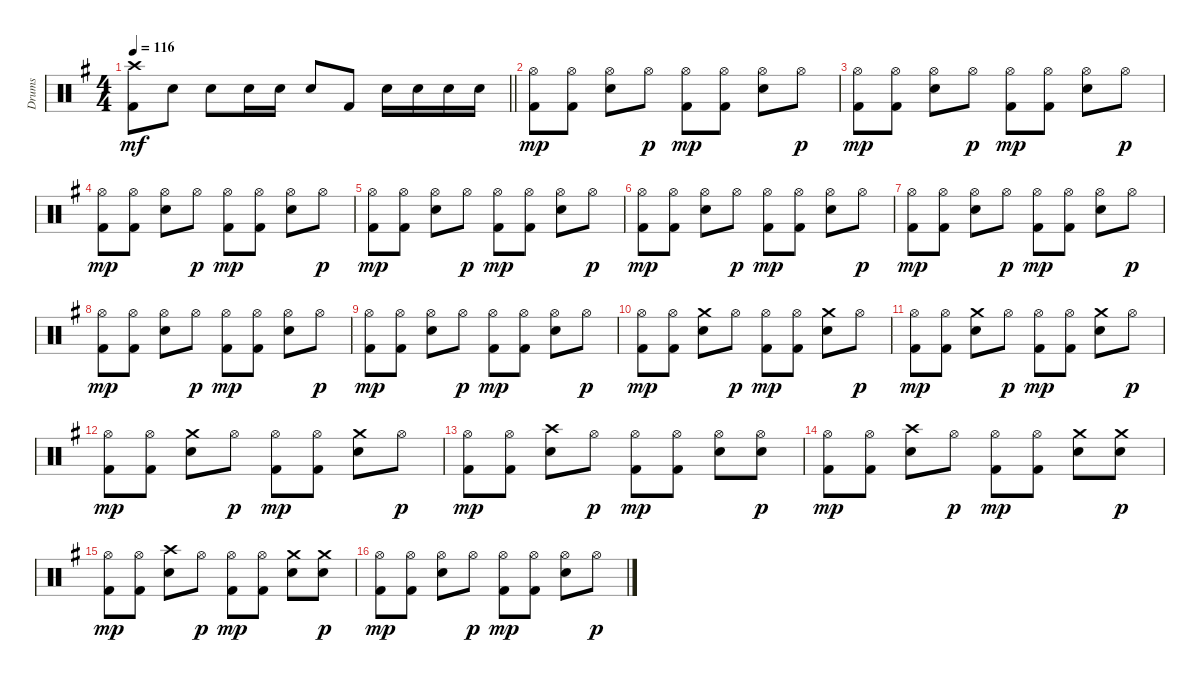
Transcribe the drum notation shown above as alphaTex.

\track ("Drums" "Drums") {instrument percussion}
\staff {score}
\articulation defaults
\ts (4 4)
\tempo 116
\clef neutral
\barLineRight lightlight
\ks g
("Crash high (hit)" "Kick (hit) 2").8{dy mf} "Electric Snare (hit)".8 "Electric Snare (hit)".8 "Electric Snare (hit)".16 "Electric Snare (hit)".16 "Electric Snare (hit)".8 "Kick (hit) 2".8 "Electric Snare (hit)".16 "Electric Snare (hit)".16 "Electric Snare (hit)".16 "Electric Snare (hit)".16 |
("Hi-Hat (open)" "Kick (hit) 2").8{dy mp} ("Hi-Hat (open)" "Kick (hit) 2").8 ("Hi-Hat (open)" "Electric Snare (hit)").8 "Hi-Hat (open)".8{dy p} ("Hi-Hat (open)" "Kick (hit) 2").8{dy mp} ("Hi-Hat (open)" "Kick (hit) 2").8 ("Hi-Hat (open)" "Electric Snare (hit)").8 "Hi-Hat (open)".8{dy p} |
("Hi-Hat (open)" "Kick (hit) 2").8{dy mp} ("Hi-Hat (open)" "Kick (hit) 2").8 ("Hi-Hat (open)" "Electric Snare (hit)").8 "Hi-Hat (open)".8{dy p} ("Hi-Hat (open)" "Kick (hit) 2").8{dy mp} ("Hi-Hat (open)" "Kick (hit) 2").8 ("Hi-Hat (open)" "Electric Snare (hit)").8 "Hi-Hat (open)".8{dy p} |
("Hi-Hat (open)" "Kick (hit) 2").8{dy mp} ("Hi-Hat (open)" "Kick (hit) 2").8 ("Hi-Hat (open)" "Electric Snare (hit)").8 "Hi-Hat (open)".8{dy p} ("Hi-Hat (open)" "Kick (hit) 2").8{dy mp} ("Hi-Hat (open)" "Kick (hit) 2").8 ("Hi-Hat (open)" "Electric Snare (hit)").8 "Hi-Hat (open)".8{dy p} |
("Hi-Hat (open)" "Kick (hit) 2").8{dy mp} ("Hi-Hat (open)" "Kick (hit) 2").8 ("Hi-Hat (open)" "Electric Snare (hit)").8 "Hi-Hat (open)".8{dy p} ("Hi-Hat (open)" "Kick (hit) 2").8{dy mp} ("Hi-Hat (open)" "Kick (hit) 2").8 ("Hi-Hat (open)" "Electric Snare (hit)").8 "Hi-Hat (open)".8{dy p} |
("Hi-Hat (open)" "Kick (hit) 2").8{dy mp} ("Hi-Hat (open)" "Kick (hit) 2").8 ("Hi-Hat (open)" "Electric Snare (hit)").8 "Hi-Hat (open)".8{dy p} ("Hi-Hat (open)" "Kick (hit) 2").8{dy mp} ("Hi-Hat (open)" "Kick (hit) 2").8 ("Hi-Hat (open)" "Electric Snare (hit)").8 "Hi-Hat (open)".8{dy p} |
("Hi-Hat (open)" "Kick (hit) 2").8{dy mp} ("Hi-Hat (open)" "Kick (hit) 2").8 ("Hi-Hat (open)" "Electric Snare (hit)").8 "Hi-Hat (open)".8{dy p} ("Hi-Hat (open)" "Kick (hit) 2").8{dy mp} ("Hi-Hat (open)" "Kick (hit) 2").8 ("Hi-Hat (open)" "Electric Snare (hit)").8 "Hi-Hat (open)".8{dy p} |
("Hi-Hat (open)" "Kick (hit) 2").8{dy mp} ("Hi-Hat (open)" "Kick (hit) 2").8 ("Hi-Hat (open)" "Electric Snare (hit)").8 "Hi-Hat (open)".8{dy p} ("Hi-Hat (open)" "Kick (hit) 2").8{dy mp} ("Hi-Hat (open)" "Kick (hit) 2").8 ("Hi-Hat (open)" "Electric Snare (hit)").8 "Hi-Hat (open)".8{dy p} |
("Hi-Hat (open)" "Kick (hit) 2").8{dy mp} ("Hi-Hat (open)" "Kick (hit) 2").8 ("Hi-Hat (open)" "Electric Snare (hit)").8 "Hi-Hat (open)".8{dy p} ("Hi-Hat (open)" "Kick (hit) 2").8{dy mp} ("Hi-Hat (open)" "Kick (hit) 2").8 ("Hi-Hat (open)" "Electric Snare (hit)").8 "Hi-Hat (open)".8{dy p} |
("Hi-Hat (open)" "Kick (hit) 2").8{dy mp} ("Hi-Hat (open)" "Kick (hit) 2").8 ("Crash medium (hit)" "Electric Snare (hit)").8 "Hi-Hat (open)".8{dy p} ("Hi-Hat (open)" "Kick (hit) 2").8{dy mp} ("Hi-Hat (open)" "Kick (hit) 2").8 ("Crash medium (hit)" "Electric Snare (hit)").8 "Hi-Hat (open)".8{dy p} |
("Hi-Hat (open)" "Kick (hit) 2").8{dy mp} ("Hi-Hat (open)" "Kick (hit) 2").8 ("Crash medium (hit)" "Electric Snare (hit)").8 "Hi-Hat (open)".8{dy p} ("Hi-Hat (open)" "Kick (hit) 2").8{dy mp} ("Hi-Hat (open)" "Kick (hit) 2").8 ("Crash medium (hit)" "Electric Snare (hit)").8 "Hi-Hat (open)".8{dy p} |
("Hi-Hat (open)" "Kick (hit) 2").8{dy mp} ("Hi-Hat (open)" "Kick (hit) 2").8 ("Crash medium (hit)" "Electric Snare (hit)").8 "Hi-Hat (open)".8{dy p} ("Hi-Hat (open)" "Kick (hit) 2").8{dy mp} ("Hi-Hat (open)" "Kick (hit) 2").8 ("Crash medium (hit)" "Electric Snare (hit)").8 "Hi-Hat (open)".8{dy p} |
("Hi-Hat (open)" "Kick (hit) 2").8{dy mp} ("Hi-Hat (open)" "Kick (hit) 2").8 ("Crash high (hit)" "Electric Snare (hit)").8 "Hi-Hat (open)".8{dy p} ("Hi-Hat (open)" "Kick (hit) 2").8{dy mp} ("Hi-Hat (open)" "Kick (hit) 2").8 ("Hi-Hat (open)" "Electric Snare (hit)").8 ("Hi-Hat (open)" "Electric Snare (hit)").8{dy p} |
("Hi-Hat (open)" "Kick (hit) 2").8{dy mp} ("Hi-Hat (open)" "Kick (hit) 2").8 ("Crash high (hit)" "Electric Snare (hit)").8 "Hi-Hat (open)".8{dy p} ("Hi-Hat (open)" "Kick (hit) 2").8{dy mp} ("Hi-Hat (open)" "Kick (hit) 2").8 ("Crash medium (hit)" "Electric Snare (hit)").8 ("Crash medium (hit)" "Electric Snare (hit)").8{dy p} |
("Hi-Hat (open)" "Kick (hit) 2").8{dy mp} ("Hi-Hat (open)" "Kick (hit) 2").8 ("Crash high (hit)" "Electric Snare (hit)").8 "Hi-Hat (open)".8{dy p} ("Hi-Hat (open)" "Kick (hit) 2").8{dy mp} ("Hi-Hat (open)" "Kick (hit) 2").8 ("Crash medium (hit)" "Electric Snare (hit)").8 ("Crash medium (hit)" "Electric Snare (hit)").8{dy p} |
("Hi-Hat (open)" "Kick (hit) 2").8{dy mp} ("Hi-Hat (open)" "Kick (hit) 2").8 ("Hi-Hat (open)" "Electric Snare (hit)").8 "Hi-Hat (open)".8{dy p} ("Hi-Hat (open)" "Kick (hit) 2").8{dy mp} ("Hi-Hat (open)" "Kick (hit) 2").8 ("Hi-Hat (open)" "Electric Snare (hit)").8 "Hi-Hat (open)".8{dy p}
